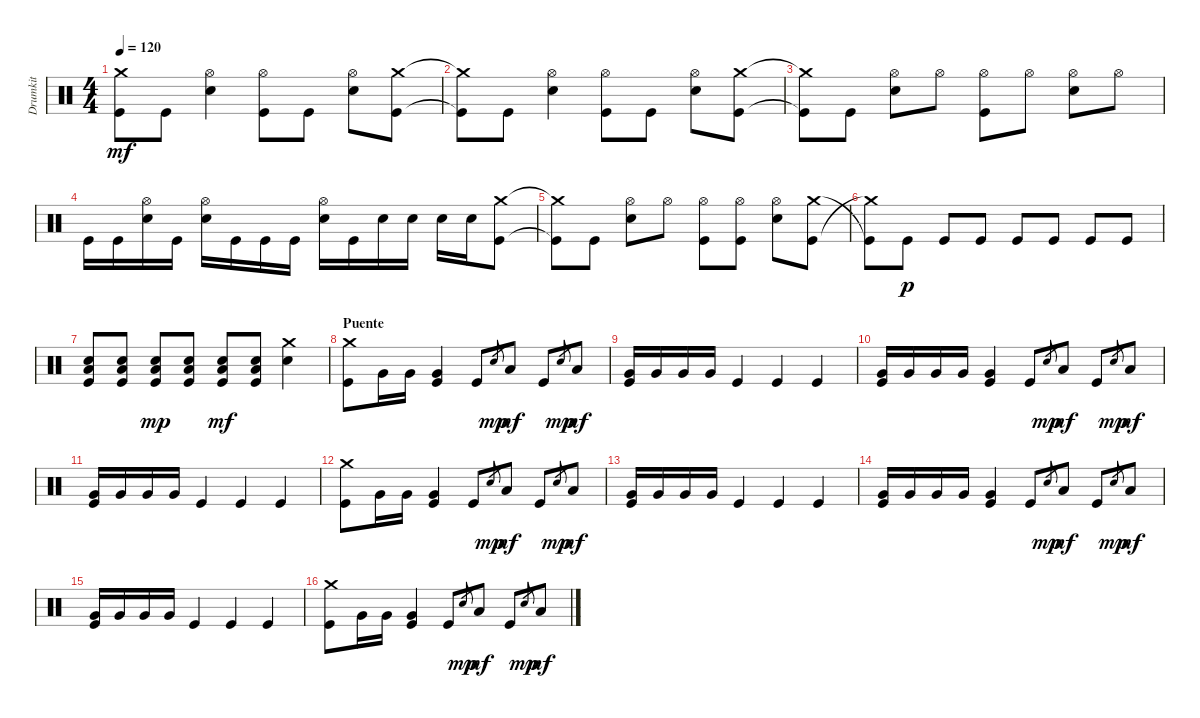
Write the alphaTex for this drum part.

\track ("Drumkit" "Drumkit") {instrument percussion}
\staff {score}
\articulation defaults
\ts (4 4)
\tempo 120
\clef neutral
\ks c
("Kick (hit)"{t} "Crash medium (hit)"{t}).8{dy mf} "Kick (hit)".8 ("Snare (hit) 2" "Hi-Hat (open)").4 ("Kick (hit)" "Hi-Hat (open)").8 "Kick (hit)".8 ("Snare (hit) 2" "Hi-Hat (open)").8 ("Kick (hit)" "Crash medium (hit)").8 |
("Kick (hit)"{t} "Crash medium (hit)"{t}).8 "Kick (hit)".8 ("Snare (hit) 2" "Hi-Hat (open)").4 ("Kick (hit)" "Hi-Hat (open)").8 "Kick (hit)".8 ("Snare (hit) 2" "Hi-Hat (open)").8 ("Kick (hit)" "Crash medium (hit)").8 |
("Kick (hit)"{t} "Crash medium (hit)"{t}).8 "Kick (hit)".8 ("Snare (hit) 2" "Hi-Hat (open)").8 "Hi-Hat (open)".8 ("Hi-Hat (open)" "Kick (hit)").8 "Hi-Hat (open)".8 ("Hi-Hat (open)" "Snare (hit) 2").8 "Hi-Hat (open)".8 |
"Kick (hit)".16 "Kick (hit)".16 ("Snare (hit) 2" "Hi-Hat (open)").16 "Kick (hit)".16 ("Snare (hit) 2" "Hi-Hat (open)").16 "Kick (hit)".16 "Kick (hit)".16 "Kick (hit)".16 ("Snare (hit) 2" "Hi-Hat (open)").16 "Kick (hit)".16 "Snare (hit) 2".16 "Snare (hit) 2".16 "Snare (hit) 2".16 "Snare (hit) 2".16 ("Kick (hit)" "Crash medium (hit)").8 |
("Kick (hit)"{t} "Crash medium (hit)"{t}).8 "Kick (hit)".8 ("Snare (hit) 2" "Hi-Hat (open)").8 "Hi-Hat (open)".8 ("Hi-Hat (open)" "Kick (hit)").8 ("Hi-Hat (open)" "Kick (hit)").8 ("Hi-Hat (open)" "Snare (hit) 2").8 ("Kick (hit)" "Crash medium (hit)").8 |
("Crash medium (hit)"{t} "Kick (hit)"{t}).8 "Kick (hit)".8{dy p} "Kick (hit)".8 "Kick (hit)".8 "Kick (hit)".8 "Kick (hit)".8 "Kick (hit)".8 "Kick (hit)".8 |
("Kick (hit)" "Low Floor Tom (hit)" "Snare (hit) 2").8 ("Kick (hit)" "Low Floor Tom (hit)" "Snare (hit) 2").8 ("Kick (hit)" "Low Floor Tom (hit)" "Snare (hit) 2").8{dy mp} ("Kick (hit)" "Low Floor Tom (hit)" "Snare (hit) 2").8 ("Kick (hit)" "Low Floor Tom (hit)" "Snare (hit) 2").8{dy mf} ("Kick (hit)" "Low Floor Tom (hit)" "Snare (hit) 2").8 ("Snare (hit) 2" "Crash medium (hit)").4 |
\section ("" "Puente")
("Kick (hit)" "Crash medium (hit)").8 "Very Low Tom (hit)".16 "Very Low Tom (hit)".16 ("Very Low Tom (hit)" "Kick (hit)").4 "Kick (hit)".8 "Snare (hit)".8{gr dy mp} "Low Tom (hit)".8{dy mf} "Kick (hit)".8 "Snare (hit)".8{gr dy mp} "Low Tom (hit)".8{dy mf} |
("Kick (hit)" "Very Low Tom (hit)").16 "Very Low Tom (hit)".16 "Very Low Tom (hit)".16 "Very Low Tom (hit)".16 "Kick (hit)".4 "Kick (hit)".4 "Kick (hit)".4 |
("Kick (hit)" "Very Low Tom (hit)").16 "Very Low Tom (hit)".16 "Very Low Tom (hit)".16 "Very Low Tom (hit)".16 ("Very Low Tom (hit)" "Kick (hit)").4 "Kick (hit)".8 "Snare (hit)".8{gr dy mp} "Low Tom (hit)".8{dy mf} "Kick (hit)".8 "Snare (hit)".8{gr dy mp} "Low Tom (hit)".8{dy mf} |
("Kick (hit)" "Very Low Tom (hit)").16 "Very Low Tom (hit)".16 "Very Low Tom (hit)".16 "Very Low Tom (hit)".16 "Kick (hit)".4 "Kick (hit)".4 "Kick (hit)".4 |
("Kick (hit)" "Crash medium (hit)").8 "Very Low Tom (hit)".16 "Very Low Tom (hit)".16 ("Very Low Tom (hit)" "Kick (hit)").4 "Kick (hit)".8 "Snare (hit)".8{gr dy mp} "Low Tom (hit)".8{dy mf} "Kick (hit)".8 "Snare (hit)".8{gr dy mp} "Low Tom (hit)".8{dy mf} |
("Kick (hit)" "Very Low Tom (hit)").16 "Very Low Tom (hit)".16 "Very Low Tom (hit)".16 "Very Low Tom (hit)".16 "Kick (hit)".4 "Kick (hit)".4 "Kick (hit)".4 |
("Kick (hit)" "Very Low Tom (hit)").16 "Very Low Tom (hit)".16 "Very Low Tom (hit)".16 "Very Low Tom (hit)".16 ("Very Low Tom (hit)" "Kick (hit)").4 "Kick (hit)".8 "Snare (hit)".8{gr dy mp} "Low Tom (hit)".8{dy mf} "Kick (hit)".8 "Snare (hit)".8{gr dy mp} "Low Tom (hit)".8{dy mf} |
("Kick (hit)" "Very Low Tom (hit)").16 "Very Low Tom (hit)".16 "Very Low Tom (hit)".16 "Very Low Tom (hit)".16 "Kick (hit)".4 "Kick (hit)".4 "Kick (hit)".4 |
("Kick (hit)" "Crash medium (hit)").8 "Very Low Tom (hit)".16 "Very Low Tom (hit)".16 ("Very Low Tom (hit)" "Kick (hit)").4 "Kick (hit)".8 "Snare (hit)".8{gr dy mp} "Low Tom (hit)".8{dy mf} "Kick (hit)".8 "Snare (hit)".8{gr dy mp} "Low Tom (hit)".8{dy mf}
